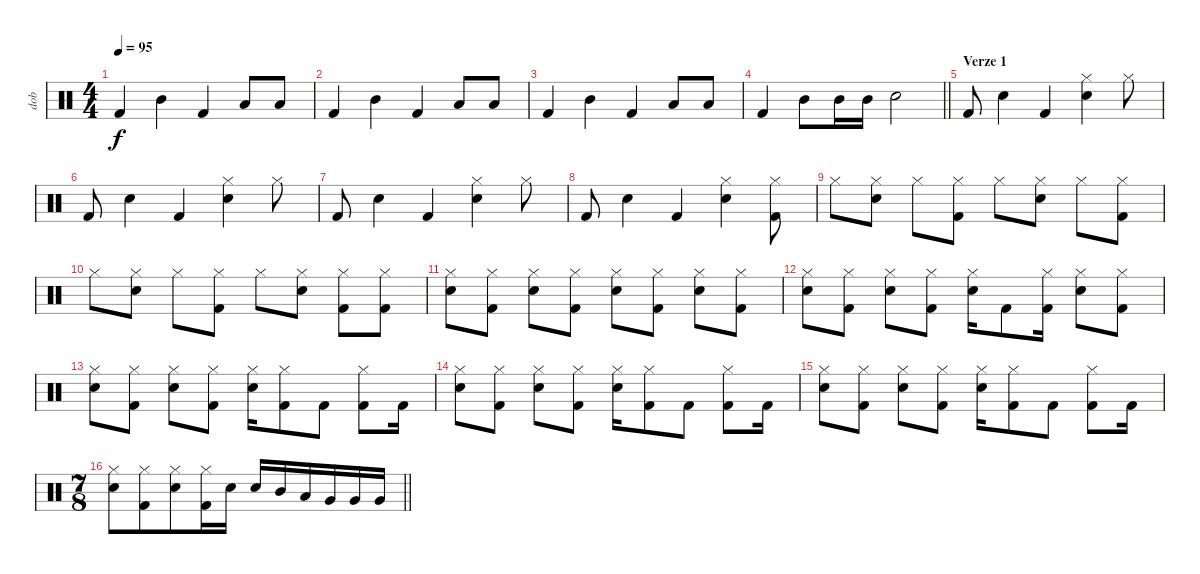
\track ("dob" "dob") {instrument percussion}
\staff {score}
\articulation defaults
\ts (4 4)
\tempo 95
\clef neutral
\ks c "Kick (hit) 2".4{dy f} "Mid Tom (hit)".4 "Kick (hit) 2".4 "Low Tom (hit)".8 "Low Tom (hit)".8
|
"Kick (hit) 2".4 "Mid Tom (hit)".4 "Kick (hit) 2".4 "Low Tom (hit)".8 "Low Tom (hit)".8 |
"Kick (hit) 2".4 "Mid Tom (hit)".4 "Kick (hit) 2".4 "Low Tom (hit)".8 "Low Tom (hit)".8 |
\barLineRight lightlight "Kick (hit) 2".4 "Mid Tom (hit)".8 "Mid Tom (hit)".16 "Mid Tom (hit)".16 "Electric Snare (hit)".2
|
\section ("" "Verze 1")
"Kick (hit) 2".8 "Electric Snare (hit)".4 "Kick (hit) 2".4 ("Hi-Hat (closed)" "Electric Snare (hit)").4 "Hi-Hat (closed)".8 |
"Kick (hit) 2".8 "Electric Snare (hit)".4 "Kick (hit) 2".4 ("Hi-Hat (closed)" "Electric Snare (hit)").4 "Hi-Hat (closed)".8 |
"Kick (hit) 2".8 "Electric Snare (hit)".4 "Kick (hit) 2".4 ("Hi-Hat (closed)" "Electric Snare (hit)").4 "Hi-Hat (closed)".8 |
"Kick (hit) 2".8 "Electric Snare (hit)".4 "Kick (hit) 2".4 ("Hi-Hat (closed)" "Electric Snare (hit)").4 ("Hi-Hat (closed)" "Kick (hit) 2").8 |
"Hi-Hat (closed)".8 ("Hi-Hat (closed)" "Electric Snare (hit)").8 "Hi-Hat (closed)".8 ("Hi-Hat (closed)" "Kick (hit) 2").8 "Hi-Hat (closed)".8 ("Hi-Hat (closed)" "Electric Snare (hit)").8 "Hi-Hat (closed)".8 ("Hi-Hat (closed)" "Kick (hit) 2").8 |
"Hi-Hat (closed)".8 ("Hi-Hat (closed)" "Electric Snare (hit)").8 "Hi-Hat (closed)".8 ("Hi-Hat (closed)" "Kick (hit) 2").8 "Hi-Hat (closed)".8 ("Hi-Hat (closed)" "Electric Snare (hit)").8 ("Hi-Hat (closed)" "Kick (hit) 2").8 ("Hi-Hat (closed)" "Kick (hit) 2").8 |
("Hi-Hat (closed)" "Electric Snare (hit)").8 ("Hi-Hat (closed)" "Kick (hit) 2").8 ("Hi-Hat (closed)" "Electric Snare (hit)").8 ("Hi-Hat (closed)" "Kick (hit) 2").8 ("Hi-Hat (closed)" "Electric Snare (hit)").8 ("Hi-Hat (closed)" "Kick (hit) 2").8 ("Hi-Hat (closed)" "Electric Snare (hit)").8 ("Hi-Hat (closed)" "Kick (hit) 2").8 |
("Hi-Hat (closed)" "Electric Snare (hit)").8 ("Hi-Hat (closed)" "Kick (hit) 2").8 ("Hi-Hat (closed)" "Electric Snare (hit)").8 ("Hi-Hat (closed)" "Kick (hit) 2").8 ("Hi-Hat (closed)" "Electric Snare (hit)").16 "Kick (hit) 2".8 ("Hi-Hat (closed)" "Kick (hit) 2").16 ("Hi-Hat (closed)" "Electric Snare (hit)").8 ("Hi-Hat (closed)" "Kick (hit) 2").8 |
("Hi-Hat (closed)" "Electric Snare (hit)").8 ("Hi-Hat (closed)" "Kick (hit) 2").8 ("Hi-Hat (closed)" "Electric Snare (hit)").8 ("Hi-Hat (closed)" "Kick (hit) 2").8 ("Hi-Hat (closed)" "Electric Snare (hit)").16 ("Hi-Hat (closed)" "Kick (hit) 2").8 "Kick (hit) 2".8 ("Hi-Hat (closed)" "Kick (hit) 2").8 "Kick (hit) 2".16 |
("Hi-Hat (closed)" "Electric Snare (hit)").8 ("Hi-Hat (closed)" "Kick (hit) 2").8 ("Hi-Hat (closed)" "Electric Snare (hit)").8 ("Hi-Hat (closed)" "Kick (hit) 2").8 ("Hi-Hat (closed)" "Electric Snare (hit)").16 ("Hi-Hat (closed)" "Kick (hit) 2").8 "Kick (hit) 2".8 ("Hi-Hat (closed)" "Kick (hit) 2").8 "Kick (hit) 2".16 |
("Hi-Hat (closed)" "Electric Snare (hit)").8 ("Hi-Hat (closed)" "Kick (hit) 2").8 ("Hi-Hat (closed)" "Electric Snare (hit)").8 ("Hi-Hat (closed)" "Kick (hit) 2").8 ("Hi-Hat (closed)" "Electric Snare (hit)").16 ("Hi-Hat (closed)" "Kick (hit) 2").8 "Kick (hit) 2".8 ("Hi-Hat (closed)" "Kick (hit) 2").8 "Kick (hit) 2".16 |
\ts (7 8)
\barLineRight lightlight
("Hi-Hat (closed)" "Electric Snare (hit)").8 ("Hi-Hat (closed)" "Kick (hit) 2").8 ("Hi-Hat (closed)" "Electric Snare (hit)").8 ("Hi-Hat (closed)" "Kick (hit) 2").16 "Electric Snare (hit)".16 "Electric Snare (hit)".16 "Mid Tom (hit)".16 "Low Tom (hit)".16 "Very Low Tom (hit)".16 "Very Low Tom (hit)".16 "Very Low Tom (hit)".16
